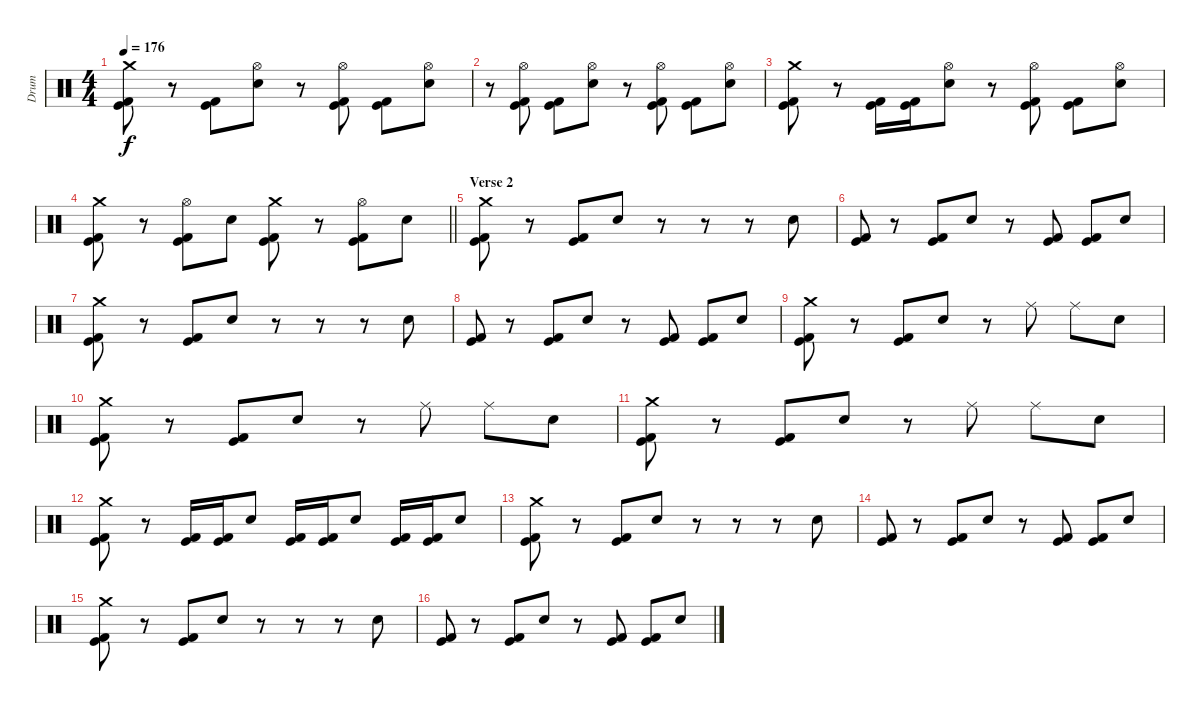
\track ("Drum" "Drum") {instrument percussion}
\staff {score}
\articulation defaults
\ts (4 4)
\tempo 176
\clef neutral
\ks c
("Crash medium (hit)" "Kick (hit)" "Kick (hit) 2").8{dy f} r.8 ("Kick (hit)" "Kick (hit) 2").8 ("Hi-Hat (open)" "Electric Snare (hit)").8 r.8 ("Hi-Hat (open)" "Kick (hit)" "Kick (hit) 2").8 ("Kick (hit)" "Kick (hit) 2").8 ("Hi-Hat (open)" "Electric Snare (hit)").8 |
r.8 ("Hi-Hat (open)" "Kick (hit)" "Kick (hit) 2").8 ("Kick (hit)" "Kick (hit) 2").8 ("Hi-Hat (open)" "Electric Snare (hit)").8 r.8 ("Hi-Hat (open)" "Kick (hit)" "Kick (hit) 2").8 ("Kick (hit)" "Kick (hit) 2").8 ("Hi-Hat (open)" "Electric Snare (hit)").8 |
("Crash medium (hit)" "Kick (hit)" "Kick (hit) 2").8 r.8 ("Kick (hit)" "Kick (hit) 2").16 ("Kick (hit)" "Kick (hit) 2").16 ("Hi-Hat (open)" "Electric Snare (hit)").8 r.8 ("Hi-Hat (open)" "Kick (hit)" "Kick (hit) 2").8 ("Kick (hit)" "Kick (hit) 2").8 ("Hi-Hat (open)" "Electric Snare (hit)").8 |
\barLineRight lightlight
("Crash medium (hit)" "Kick (hit)" "Kick (hit) 2").8 r.8 ("Hi-Hat (open)" "Kick (hit)" "Kick (hit) 2").8 "Electric Snare (hit)".8 ("Crash medium (hit)" "Kick (hit)" "Kick (hit) 2").8 r.8 ("Hi-Hat (open)" "Kick (hit)" "Kick (hit) 2").8 "Electric Snare (hit)".8 |
\section ("" "Verse 2")
("Crash medium (hit)" "Kick (hit)" "Kick (hit) 2").8 r.8 ("Kick (hit)" "Kick (hit) 2").8 "Electric Snare (hit)".8 r.8 r.8 r.8 "Electric Snare (hit)".8 |
("Kick (hit)" "Kick (hit) 2").8 r.8 ("Kick (hit)" "Kick (hit) 2").8 "Electric Snare (hit)".8 r.8 ("Kick (hit)" "Kick (hit) 2").8 ("Kick (hit)" "Kick (hit) 2").8 "Electric Snare (hit)".8 |
("Crash medium (hit)" "Kick (hit)" "Kick (hit) 2").8 r.8 ("Kick (hit)" "Kick (hit) 2").8 "Electric Snare (hit)".8 r.8 r.8 r.8 "Electric Snare (hit)".8 |
("Kick (hit)" "Kick (hit) 2").8 r.8 ("Kick (hit)" "Kick (hit) 2").8 "Electric Snare (hit)".8 r.8 ("Kick (hit)" "Kick (hit) 2").8 ("Kick (hit)" "Kick (hit) 2").8 "Electric Snare (hit)".8 |
("Crash medium (hit)" "Kick (hit)" "Kick (hit) 2").8 r.8 ("Kick (hit)" "Kick (hit) 2").8 "Electric Snare (hit)".8 r.8 "Ride (middle)".8 "Ride (middle)".8 "Electric Snare (hit)".8 |
("Crash medium (hit)" "Kick (hit)" "Kick (hit) 2").8 r.8 ("Kick (hit)" "Kick (hit) 2").8 "Electric Snare (hit)".8 r.8 "Ride (middle)".8 "Ride (middle)".8 "Electric Snare (hit)".8 |
("Crash medium (hit)" "Kick (hit)" "Kick (hit) 2").8 r.8 ("Kick (hit)" "Kick (hit) 2").8 "Electric Snare (hit)".8 r.8 "Ride (middle)".8 "Ride (middle)".8 "Electric Snare (hit)".8 |
("Crash medium (hit)" "Kick (hit)" "Kick (hit) 2").8 r.8 ("Kick (hit)" "Kick (hit) 2").16 ("Kick (hit)" "Kick (hit) 2").16 "Electric Snare (hit)".8 ("Kick (hit)" "Kick (hit) 2").16 ("Kick (hit)" "Kick (hit) 2").16 "Electric Snare (hit)".8 ("Kick (hit)" "Kick (hit) 2").16 ("Kick (hit)" "Kick (hit) 2").16 "Electric Snare (hit)".8 |
("Crash medium (hit)" "Kick (hit)" "Kick (hit) 2").8 r.8 ("Kick (hit)" "Kick (hit) 2").8 "Electric Snare (hit)".8 r.8 r.8 r.8 "Electric Snare (hit)".8 |
("Kick (hit)" "Kick (hit) 2").8 r.8 ("Kick (hit)" "Kick (hit) 2").8 "Electric Snare (hit)".8 r.8 ("Kick (hit)" "Kick (hit) 2").8 ("Kick (hit)" "Kick (hit) 2").8 "Electric Snare (hit)".8 |
("Crash medium (hit)" "Kick (hit)" "Kick (hit) 2").8 r.8 ("Kick (hit)" "Kick (hit) 2").8 "Electric Snare (hit)".8 r.8 r.8 r.8 "Electric Snare (hit)".8 |
("Kick (hit)" "Kick (hit) 2").8 r.8 ("Kick (hit)" "Kick (hit) 2").8 "Electric Snare (hit)".8 r.8 ("Kick (hit)" "Kick (hit) 2").8 ("Kick (hit)" "Kick (hit) 2").8 "Electric Snare (hit)".8
